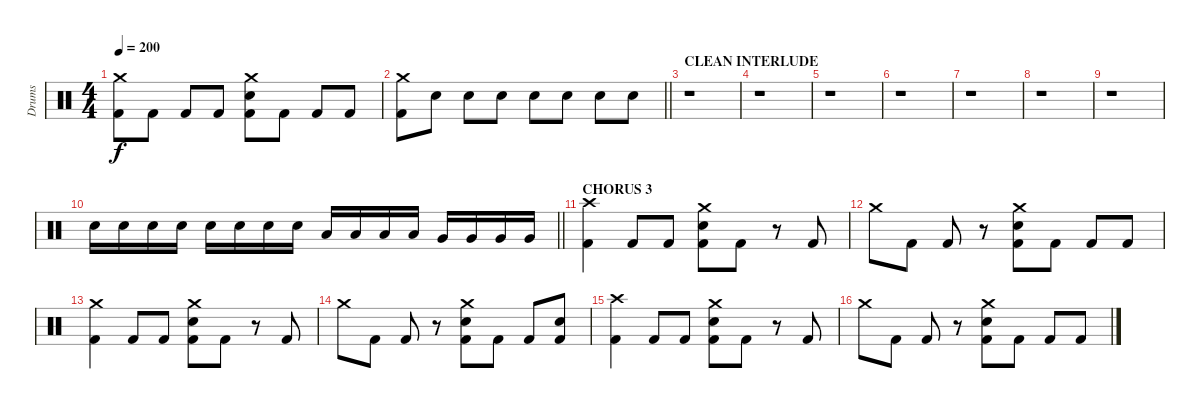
\track ("Drums" "Drums") {instrument percussion}
\staff {score}
\articulation defaults
\ts (4 4)
\tempo 200
\clef neutral
\ks c
("Crash medium (hit)" "Kick (hit) 2").8{dy f} "Kick (hit) 2".8 "Kick (hit) 2".8 "Kick (hit) 2".8 ("Crash medium (hit)" "Electric Snare (hit)" "Kick (hit) 2").8 "Kick (hit) 2".8 "Kick (hit) 2".8 "Kick (hit) 2".8 |
\barLineRight lightlight
("Crash medium (hit)" "Kick (hit) 2").8 "Electric Snare (hit)".8 "Electric Snare (hit)".8 "Electric Snare (hit)".8 "Electric Snare (hit)".8 "Electric Snare (hit)".8 "Electric Snare (hit)".8 "Electric Snare (hit)".8 |
\section ("" "CLEAN INTERLUDE")
r.1 |
r.1 |
r.1 |
r.1 |
r.1 |
r.1 |
r.1 |
\barLineRight lightlight "Electric Snare (hit)".16 "Electric Snare (hit)".16 "Electric Snare (hit)".16 "Electric Snare (hit)".16 "Electric Snare (hit)".16 "Electric Snare (hit)".16 "Electric Snare (hit)".16 "Electric Snare (hit)".16 "Low Tom (hit)".16 "Low Tom (hit)".16 "Low Tom (hit)".16 "Low Tom (hit)".16 "Very Low Tom (hit)".16 "Very Low Tom (hit)".16 "Very Low Tom (hit)".16 "Very Low Tom (hit)".16
|
\section ("" "CHORUS 3")
("Crash high (hit)" "Kick (hit) 2").4 "Kick (hit) 2".8 "Kick (hit) 2".8 ("Crash medium (hit)" "Electric Snare (hit)" "Kick (hit) 2").8 "Kick (hit) 2".8 r.8 "Kick (hit) 2".8 |
"Crash medium (hit)".8 "Kick (hit) 2".8 "Kick (hit) 2".8 r.8 ("Crash medium (hit)" "Electric Snare (hit)" "Kick (hit) 2").8 "Kick (hit) 2".8 "Kick (hit) 2".8 "Kick (hit) 2".8 |
("Crash medium (hit)" "Kick (hit) 2").4 "Kick (hit) 2".8 "Kick (hit) 2".8 ("Crash medium (hit)" "Electric Snare (hit)" "Kick (hit) 2").8 "Kick (hit) 2".8 r.8 "Kick (hit) 2".8 |
"Crash medium (hit)".8 "Kick (hit) 2".8 "Kick (hit) 2".8 r.8 ("Crash medium (hit)" "Electric Snare (hit)" "Kick (hit) 2").8 "Kick (hit) 2".8 "Kick (hit) 2".8 ("Electric Snare (hit)" "Kick (hit) 2").8 |
("Crash high (hit)" "Kick (hit) 2").4 "Kick (hit) 2".8 "Kick (hit) 2".8 ("Crash medium (hit)" "Electric Snare (hit)" "Kick (hit) 2").8 "Kick (hit) 2".8 r.8 "Kick (hit) 2".8 |
"Crash medium (hit)".8 "Kick (hit) 2".8 "Kick (hit) 2".8 r.8 ("Crash medium (hit)" "Electric Snare (hit)" "Kick (hit) 2").8 "Kick (hit) 2".8 "Kick (hit) 2".8 "Kick (hit) 2".8
